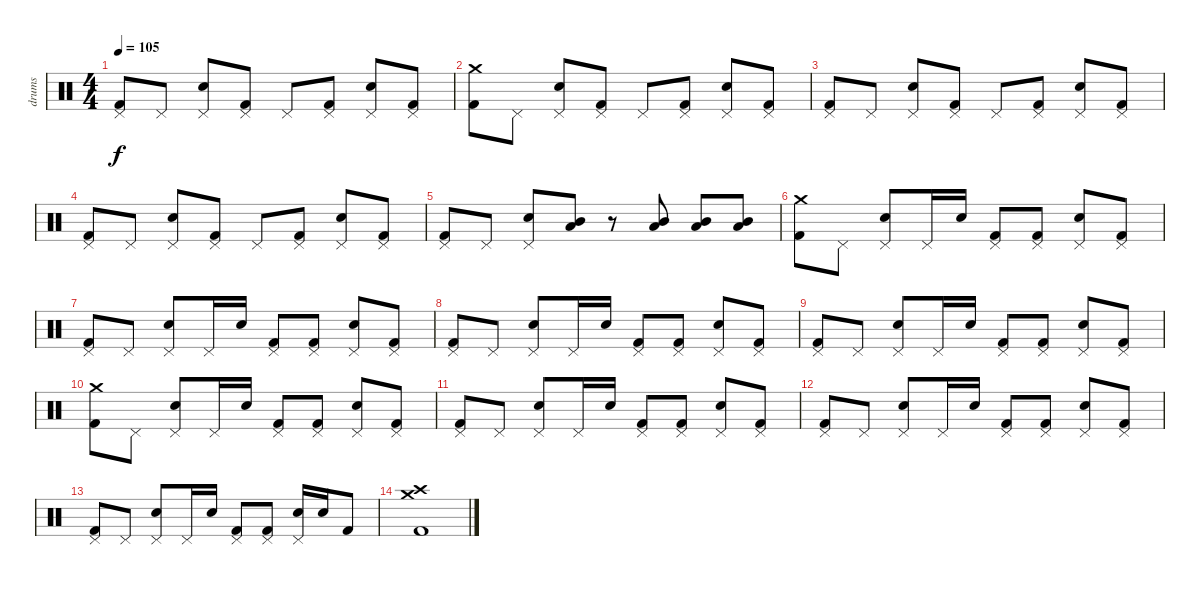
\track ("drums" "drums") {instrument percussion}
\staff {score}
\articulation defaults
\ts (4 4)
\tempo 105
\clef neutral
\ks c
("Pedal Hi-Hat (hit)" "Kick (hit) 2").8{dy f} "Pedal Hi-Hat (hit)".8 ("Pedal Hi-Hat (hit)" "Electric Snare (hit)").8 ("Pedal Hi-Hat (hit)" "Kick (hit) 2").8 "Pedal Hi-Hat (hit)".8 ("Pedal Hi-Hat (hit)" "Kick (hit) 2").8 ("Pedal Hi-Hat (hit)" "Electric Snare (hit)").8 ("Pedal Hi-Hat (hit)" "Kick (hit) 2").8 |
("Crash medium (hit)" "Kick (hit) 2").8 "Pedal Hi-Hat (hit)".8 ("Pedal Hi-Hat (hit)" "Electric Snare (hit)").8 ("Pedal Hi-Hat (hit)" "Kick (hit) 2").8 "Pedal Hi-Hat (hit)".8 ("Pedal Hi-Hat (hit)" "Kick (hit) 2").8 ("Pedal Hi-Hat (hit)" "Electric Snare (hit)").8 ("Pedal Hi-Hat (hit)" "Kick (hit) 2").8 |
("Pedal Hi-Hat (hit)" "Kick (hit) 2").8 "Pedal Hi-Hat (hit)".8 ("Pedal Hi-Hat (hit)" "Electric Snare (hit)").8 ("Pedal Hi-Hat (hit)" "Kick (hit) 2").8 "Pedal Hi-Hat (hit)".8 ("Pedal Hi-Hat (hit)" "Kick (hit) 2").8 ("Pedal Hi-Hat (hit)" "Electric Snare (hit)").8 ("Pedal Hi-Hat (hit)" "Kick (hit) 2").8 |
("Pedal Hi-Hat (hit)" "Kick (hit) 2").8 "Pedal Hi-Hat (hit)".8 ("Pedal Hi-Hat (hit)" "Electric Snare (hit)").8 ("Pedal Hi-Hat (hit)" "Kick (hit) 2").8 "Pedal Hi-Hat (hit)".8 ("Pedal Hi-Hat (hit)" "Kick (hit) 2").8 ("Pedal Hi-Hat (hit)" "Electric Snare (hit)").8 ("Pedal Hi-Hat (hit)" "Kick (hit) 2").8 |
("Pedal Hi-Hat (hit)" "Kick (hit) 2").8 "Pedal Hi-Hat (hit)".8 ("Pedal Hi-Hat (hit)" "Electric Snare (hit)").8 ("Low Tom (hit)" "Mid Tom (hit)").8 r.8 ("Mid Tom (hit)" "Low Tom (hit)").8 ("Mid Tom (hit)" "Low Tom (hit)").8 ("Mid Tom (hit)" "Low Tom (hit)").8 |
("Crash medium (hit)" "Kick (hit) 2").8 "Pedal Hi-Hat (hit)".8 ("Pedal Hi-Hat (hit)" "Electric Snare (hit)").8 "Pedal Hi-Hat (hit)".16 "Electric Snare (hit)".16 ("Pedal Hi-Hat (hit)" "Kick (hit) 2").8 ("Pedal Hi-Hat (hit)" "Kick (hit) 2").8 ("Pedal Hi-Hat (hit)" "Electric Snare (hit)").8 ("Pedal Hi-Hat (hit)" "Kick (hit) 2").8 |
("Pedal Hi-Hat (hit)" "Kick (hit) 2").8 "Pedal Hi-Hat (hit)".8 ("Pedal Hi-Hat (hit)" "Electric Snare (hit)").8 "Pedal Hi-Hat (hit)".16 "Electric Snare (hit)".16 ("Pedal Hi-Hat (hit)" "Kick (hit) 2").8 ("Pedal Hi-Hat (hit)" "Kick (hit) 2").8 ("Pedal Hi-Hat (hit)" "Electric Snare (hit)").8 ("Pedal Hi-Hat (hit)" "Kick (hit) 2").8 |
("Pedal Hi-Hat (hit)" "Kick (hit) 2").8 "Pedal Hi-Hat (hit)".8 ("Pedal Hi-Hat (hit)" "Electric Snare (hit)").8 "Pedal Hi-Hat (hit)".16 "Electric Snare (hit)".16 ("Pedal Hi-Hat (hit)" "Kick (hit) 2").8 ("Pedal Hi-Hat (hit)" "Kick (hit) 2").8 ("Pedal Hi-Hat (hit)" "Electric Snare (hit)").8 ("Pedal Hi-Hat (hit)" "Kick (hit) 2").8 |
("Pedal Hi-Hat (hit)" "Kick (hit) 2").8 "Pedal Hi-Hat (hit)".8 ("Pedal Hi-Hat (hit)" "Electric Snare (hit)").8 "Pedal Hi-Hat (hit)".16 "Electric Snare (hit)".16 ("Pedal Hi-Hat (hit)" "Kick (hit) 2").8 ("Pedal Hi-Hat (hit)" "Kick (hit) 2").8 ("Pedal Hi-Hat (hit)" "Electric Snare (hit)").8 ("Pedal Hi-Hat (hit)" "Kick (hit) 2").8 |
("Crash medium (hit)" "Kick (hit) 2").8 "Pedal Hi-Hat (hit)".8 ("Pedal Hi-Hat (hit)" "Electric Snare (hit)").8 "Pedal Hi-Hat (hit)".16 "Electric Snare (hit)".16 ("Pedal Hi-Hat (hit)" "Kick (hit) 2").8 ("Pedal Hi-Hat (hit)" "Kick (hit) 2").8 ("Pedal Hi-Hat (hit)" "Electric Snare (hit)").8 ("Pedal Hi-Hat (hit)" "Kick (hit) 2").8 |
("Pedal Hi-Hat (hit)" "Kick (hit) 2").8 "Pedal Hi-Hat (hit)".8 ("Pedal Hi-Hat (hit)" "Electric Snare (hit)").8 "Pedal Hi-Hat (hit)".16 "Electric Snare (hit)".16 ("Pedal Hi-Hat (hit)" "Kick (hit) 2").8 ("Pedal Hi-Hat (hit)" "Kick (hit) 2").8 ("Pedal Hi-Hat (hit)" "Electric Snare (hit)").8 ("Pedal Hi-Hat (hit)" "Kick (hit) 2").8 |
("Pedal Hi-Hat (hit)" "Kick (hit) 2").8 "Pedal Hi-Hat (hit)".8 ("Pedal Hi-Hat (hit)" "Electric Snare (hit)").8 "Pedal Hi-Hat (hit)".16 "Electric Snare (hit)".16 ("Pedal Hi-Hat (hit)" "Kick (hit) 2").8 ("Pedal Hi-Hat (hit)" "Kick (hit) 2").8 ("Pedal Hi-Hat (hit)" "Electric Snare (hit)").8 ("Pedal Hi-Hat (hit)" "Kick (hit) 2").8 |
("Pedal Hi-Hat (hit)" "Kick (hit) 2").8 "Pedal Hi-Hat (hit)".8 ("Pedal Hi-Hat (hit)" "Electric Snare (hit)").8 "Pedal Hi-Hat (hit)".16 "Electric Snare (hit)".16 ("Pedal Hi-Hat (hit)" "Kick (hit) 2").8 ("Pedal Hi-Hat (hit)" "Kick (hit) 2").8 ("Pedal Hi-Hat (hit)" "Electric Snare (hit)").16 "Electric Snare (hit)".16 "Kick (hit) 2".8 |
("Crash high (hit)" "Crash medium (hit)" "Kick (hit) 2").1
